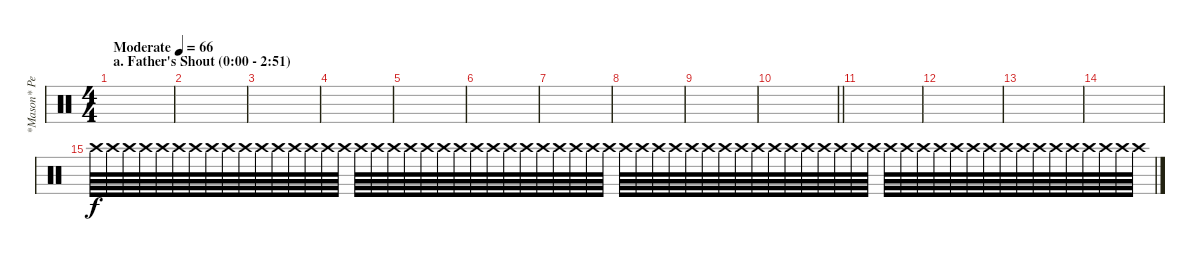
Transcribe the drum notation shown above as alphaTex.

\track ("*Mason* Percussion" "*Mason* Pe") {instrument percussion}
\staff {score}
\articulation defaults
\ts (4 4)
\section ("" "a. Father's Shout (0:00 - 2:51)")
\tempo (66 "Moderate")
\clef neutral
\ks c
|
|
|
|
|
|
|
|
|
\barLineRight lightlight
|
|
|
|
|
"Crash high (hit)".64{volume 16} "Crash high (hit)".64 "Crash high (hit)".64 "Crash high (hit)".64 "Crash high (hit)".64 "Crash high (hit)".64 "Crash high (hit)".64 "Crash high (hit)".64 "Crash high (hit)".64 "Crash high (hit)".64 "Crash high (hit)".64 "Crash high (hit)".64 "Crash high (hit)".64 "Crash high (hit)".64 "Crash high (hit)".64 "Crash high (hit)".64 "Crash high (hit)".64 "Crash high (hit)".64 "Crash high (hit)".64 "Crash high (hit)".64 "Crash high (hit)".64 "Crash high (hit)".64 "Crash high (hit)".64 "Crash high (hit)".64 "Crash high (hit)".64 "Crash high (hit)".64 "Crash high (hit)".64 "Crash high (hit)".64 "Crash high (hit)".64 "Crash high (hit)".64 "Crash high (hit)".64 "Crash high (hit)".64 "Crash high (hit)".64 "Crash high (hit)".64 "Crash high (hit)".64 "Crash high (hit)".64 "Crash high (hit)".64 "Crash high (hit)".64 "Crash high (hit)".64 "Crash high (hit)".64 "Crash high (hit)".64 "Crash high (hit)".64 "Crash high (hit)".64 "Crash high (hit)".64 "Crash high (hit)".64 "Crash high (hit)".64 "Crash high (hit)".64 "Crash high (hit)".64 "Crash high (hit)".64 "Crash high (hit)".64 "Crash high (hit)".64 "Crash high (hit)".64 "Crash high (hit)".64 "Crash high (hit)".64 "Crash high (hit)".64 "Crash high (hit)".64 "Crash high (hit)".64 "Crash high (hit)".64 "Crash high (hit)".64 "Crash high (hit)".64 "Crash high (hit)".64 "Crash high (hit)".64 "Crash high (hit)".64 "Crash high (hit)".64
